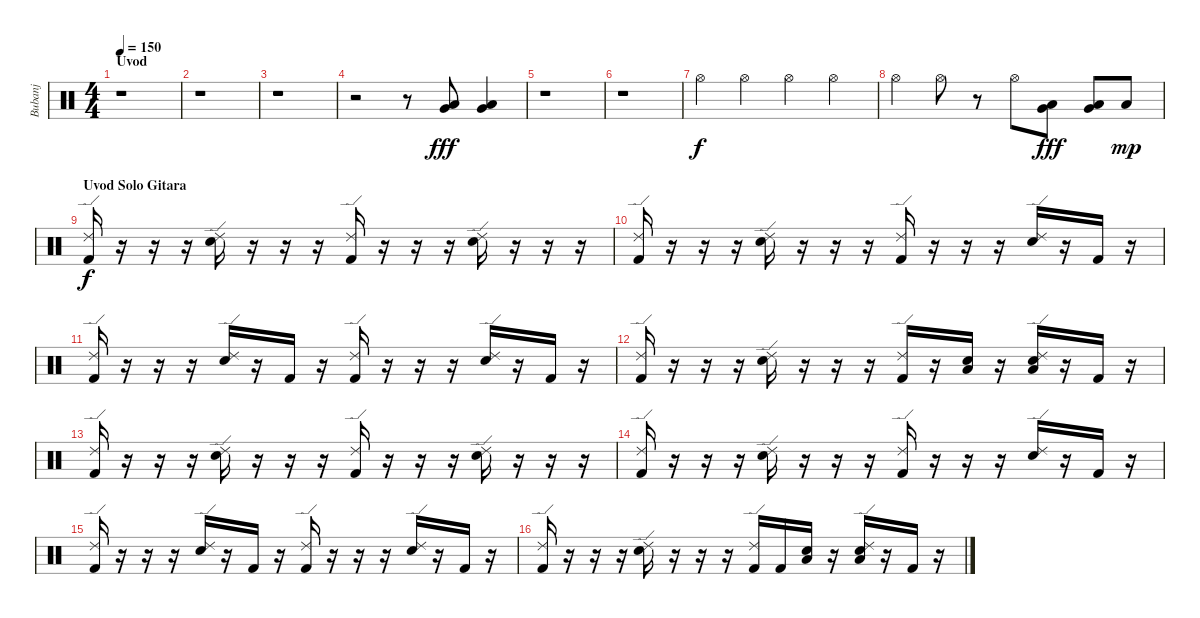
\track ("Bubanj" "Bubanj") {instrument percussion}
\staff {score}
\articulation defaults
\ts (4 4)
\section ("" "Uvod")
\tempo 150
\clef neutral
\ks c
r.1{dy fff} |
r.1 |
r.1 |
r.2 r.8 ("Very Low Tom (hit)" "Low Tom (hit)").8 ("Very Low Tom (hit)" "Low Tom (hit)").4 |
r.1 |
r.1 |
"Hi-Hat (open)".4{dy f} "Hi-Hat (open)".4 "Hi-Hat (open)".4 "Hi-Hat (open)".4 |
"Hi-Hat (open)".4 "Hi-Hat (open)".8 r.8 "Hi-Hat (open)".8 ("Very Low Tom (hit)" "Low Tom (hit)").8{dy fff} ("Very Low Tom (hit)" "Low Tom (hit)").8 "Low Tom (hit)".8{dy mp} |
\section ("" "Uvod Solo Gitara")
("Ride (edge) 2" "Kick (hit) 2").16{dy f} r.16 r.16 r.16 ("Ride (edge) 2" "Snare (hit) 2").16 r.16 r.16 r.16 ("Ride (edge) 2" "Kick (hit) 2").16 r.16 r.16 r.16 ("Ride (edge) 2" "Snare (hit) 2").16 r.16 r.16 r.16 |
("Ride (edge) 2" "Kick (hit) 2").16 r.16 r.16 r.16 ("Ride (edge) 2" "Snare (hit) 2").16 r.16 r.16 r.16 ("Ride (edge) 2" "Kick (hit) 2").16 r.16 r.16 r.16 ("Ride (edge) 2" "Snare (hit) 2").16 r.16 "Kick (hit) 2".16 r.16 |
("Ride (edge) 2" "Kick (hit) 2").16 r.16 r.16 r.16 ("Ride (edge) 2" "Snare (hit) 2").16 r.16 "Kick (hit) 2".16 r.16 ("Ride (edge) 2" "Kick (hit) 2").16 r.16 r.16 r.16 ("Ride (edge) 2" "Snare (hit) 2").16 r.16 "Kick (hit) 2".16 r.16 |
("Ride (edge) 2" "Kick (hit) 2").16 r.16 r.16 r.16 ("Ride (edge) 2" "Snare (hit) 2").16 r.16 r.16 r.16 ("Ride (edge) 2" "Kick (hit) 2").16 r.16 ("Low Tom (hit)" "Snare (hit) 2").16 r.16 ("Ride (edge) 2" "Low Tom (hit)" "Snare (hit) 2").16 r.16 "Kick (hit) 2".16 r.16 |
("Ride (edge) 2" "Kick (hit) 2").16 r.16 r.16 r.16 ("Ride (edge) 2" "Snare (hit) 2").16 r.16 r.16 r.16 ("Ride (edge) 2" "Kick (hit) 2").16 r.16 r.16 r.16 ("Ride (edge) 2" "Snare (hit) 2").16 r.16 r.16 r.16 |
("Ride (edge) 2" "Kick (hit) 2").16 r.16 r.16 r.16 ("Ride (edge) 2" "Snare (hit) 2").16 r.16 r.16 r.16 ("Ride (edge) 2" "Kick (hit) 2").16 r.16 r.16 r.16 ("Ride (edge) 2" "Snare (hit) 2").16 r.16 "Kick (hit) 2".16 r.16 |
("Ride (edge) 2" "Kick (hit) 2").16 r.16 r.16 r.16 ("Ride (edge) 2" "Snare (hit) 2").16 r.16 "Kick (hit) 2".16 r.16 ("Ride (edge) 2" "Kick (hit) 2").16 r.16 r.16 r.16 ("Ride (edge) 2" "Snare (hit) 2").16 r.16 "Kick (hit) 2".16 r.16 |
("Ride (edge) 2" "Kick (hit) 2").16 r.16 r.16 r.16 ("Ride (edge) 2" "Snare (hit) 2").16 r.16 r.16 r.16 ("Ride (edge) 2" "Kick (hit) 2").16 "Kick (hit) 2".16 ("Low Tom (hit)" "Snare (hit) 2").16 r.16 ("Ride (edge) 2" "Low Tom (hit)" "Snare (hit) 2").16 r.16 "Kick (hit) 2".16 r.16
